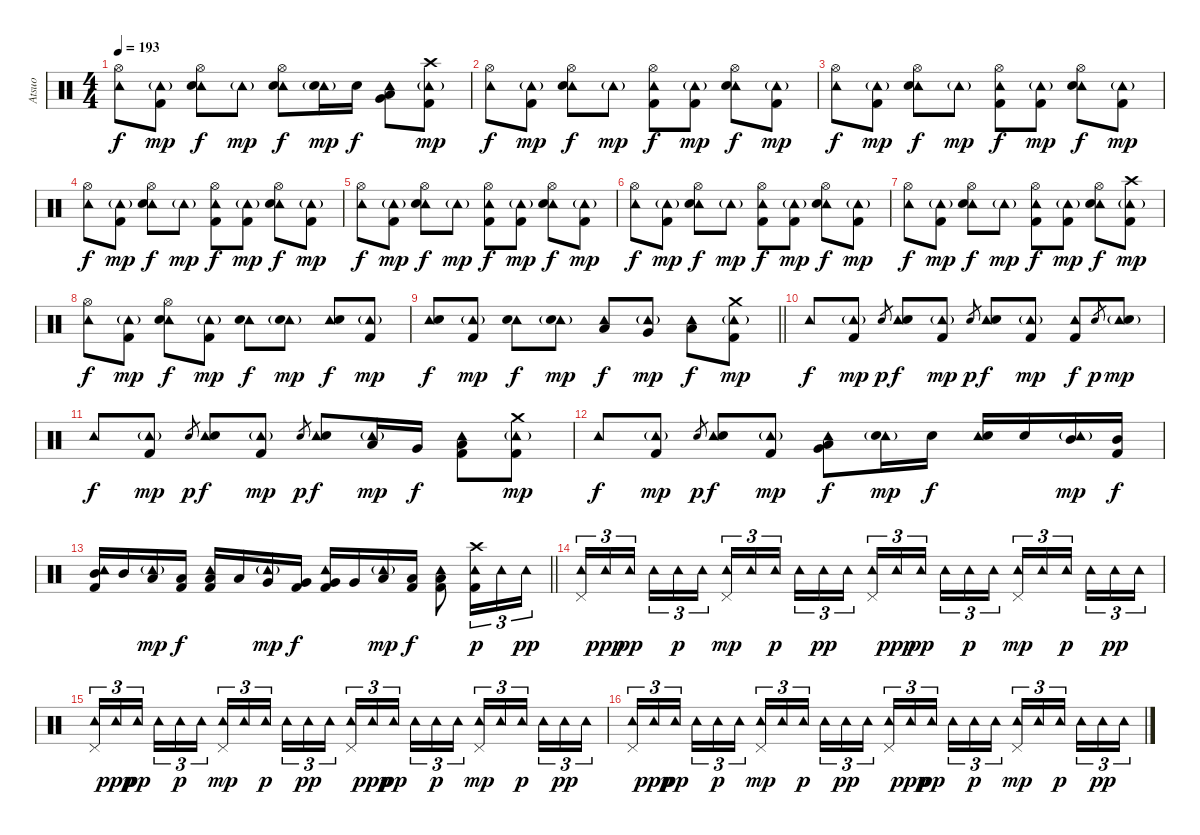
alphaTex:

\track ("Atsuo" "Atsuo") {instrument percussion}
\staff {score}
\articulation defaults
\ts (4 4)
\tempo 193
\clef neutral
\ks c
("Hi-Hat (open)" "Tambourine (hit)").8{dy f} ("Tambourine (hit)"{g} "Kick (hit) 2").8{dy mp} ("Hi-Hat (open)" "Tambourine (hit)" "Electric Snare (hit)").8{dy f} "Tambourine (hit)"{g}.8{dy mp} ("Hi-Hat (open)" "Tambourine (hit)" "Electric Snare (hit)").8{dy f} ("Tambourine (hit)"{g} "Electric Snare (hit)").16{dy mp} "Electric Snare (hit)".16{dy f} ("Tambourine (hit)" "Very Low Tom (hit)" "Low Floor Tom (hit)").8 ("Tambourine (hit)"{g} "Crash high (hit)" "Kick (hit) 2").8{dy mp} |
("Hi-Hat (open)" "Tambourine (hit)").8{dy f} ("Tambourine (hit)"{g} "Kick (hit) 2").8{dy mp} ("Hi-Hat (open)" "Tambourine (hit)" "Electric Snare (hit)").8{dy f} "Tambourine (hit)"{g}.8{dy mp} ("Hi-Hat (open)" "Tambourine (hit)" "Kick (hit) 2").8{dy f} ("Tambourine (hit)"{g} "Kick (hit) 2").8{dy mp} ("Hi-Hat (open)" "Tambourine (hit)" "Electric Snare (hit)").8{dy f} ("Tambourine (hit)"{g} "Kick (hit) 2").8{dy mp} |
("Hi-Hat (open)" "Tambourine (hit)").8{dy f} ("Tambourine (hit)"{g} "Kick (hit) 2").8{dy mp} ("Hi-Hat (open)" "Tambourine (hit)" "Electric Snare (hit)").8{dy f} "Tambourine (hit)"{g}.8{dy mp} ("Hi-Hat (open)" "Tambourine (hit)" "Kick (hit) 2").8{dy f} ("Tambourine (hit)"{g} "Kick (hit) 2").8{dy mp} ("Hi-Hat (open)" "Tambourine (hit)" "Electric Snare (hit)").8{dy f} ("Tambourine (hit)"{g} "Kick (hit) 2").8{dy mp} |
("Hi-Hat (open)" "Tambourine (hit)").8{dy f} ("Tambourine (hit)"{g} "Kick (hit) 2").8{dy mp} ("Hi-Hat (open)" "Tambourine (hit)" "Electric Snare (hit)").8{dy f} "Tambourine (hit)"{g}.8{dy mp} ("Hi-Hat (open)" "Tambourine (hit)" "Kick (hit) 2").8{dy f} ("Tambourine (hit)"{g} "Kick (hit) 2").8{dy mp} ("Hi-Hat (open)" "Tambourine (hit)" "Electric Snare (hit)").8{dy f} ("Tambourine (hit)"{g} "Kick (hit) 2").8{dy mp} |
("Hi-Hat (open)" "Tambourine (hit)").8{dy f} ("Tambourine (hit)"{g} "Kick (hit) 2").8{dy mp} ("Hi-Hat (open)" "Tambourine (hit)" "Electric Snare (hit)").8{dy f} "Tambourine (hit)"{g}.8{dy mp} ("Hi-Hat (open)" "Tambourine (hit)" "Kick (hit) 2").8{dy f} ("Tambourine (hit)"{g} "Kick (hit) 2").8{dy mp} ("Hi-Hat (open)" "Tambourine (hit)" "Electric Snare (hit)").8{dy f} ("Tambourine (hit)"{g} "Kick (hit) 2").8{dy mp} |
("Hi-Hat (open)" "Tambourine (hit)").8{dy f} ("Tambourine (hit)"{g} "Kick (hit) 2").8{dy mp} ("Hi-Hat (open)" "Tambourine (hit)" "Electric Snare (hit)").8{dy f} "Tambourine (hit)"{g}.8{dy mp} ("Hi-Hat (open)" "Tambourine (hit)" "Kick (hit) 2").8{dy f} ("Tambourine (hit)"{g} "Kick (hit) 2").8{dy mp} ("Hi-Hat (open)" "Tambourine (hit)" "Electric Snare (hit)").8{dy f} ("Tambourine (hit)"{g} "Kick (hit) 2").8{dy mp} |
("Hi-Hat (open)" "Tambourine (hit)").8{dy f} ("Tambourine (hit)"{g} "Kick (hit) 2").8{dy mp} ("Hi-Hat (open)" "Tambourine (hit)" "Electric Snare (hit)").8{dy f} "Tambourine (hit)"{g}.8{dy mp} ("Hi-Hat (open)" "Tambourine (hit)" "Kick (hit) 2").8{dy f} ("Tambourine (hit)"{g} "Kick (hit) 2").8{dy mp} ("Hi-Hat (open)" "Tambourine (hit)" "Electric Snare (hit)").8{dy f} ("Tambourine (hit)"{g} "Crash high (hit)" "Kick (hit) 2").8{dy mp} |
("Hi-Hat (open)" "Tambourine (hit)").8{dy f} ("Tambourine (hit)"{g} "Kick (hit) 2").8{dy mp} ("Hi-Hat (open)" "Tambourine (hit)" "Electric Snare (hit)").8{dy f} ("Tambourine (hit)"{g} "Kick (hit) 2").8{dy mp} ("Tambourine (hit)" "Electric Snare (hit)").8{dy f} ("Tambourine (hit)"{g} "Electric Snare (hit)").8{dy mp} ("Tambourine (hit)" "Electric Snare (hit)").8{dy f} ("Tambourine (hit)"{g} "Kick (hit) 2").8{dy mp} |
\barLineRight lightlight
("Tambourine (hit)" "Electric Snare (hit)").8{dy f} ("Tambourine (hit)"{g} "Kick (hit) 2").8{dy mp} ("Tambourine (hit)" "Electric Snare (hit)").8{dy f} ("Tambourine (hit)"{g} "Electric Snare (hit)").8{dy mp} ("Tambourine (hit)" "Low Tom (hit)").8{dy f} ("Tambourine (hit)"{g} "Very Low Tom (hit)").8{dy mp} ("Tambourine (hit)" "Low Floor Tom (hit)").8{dy f} ("Tambourine (hit)"{g} "Crash medium (hit)" "Kick (hit) 2").8{dy mp} |
"Tambourine (hit)".8{dy f} ("Tambourine (hit)"{g} "Kick (hit) 2").8{dy mp} "Electric Snare (hit)".8{gr dy p} ("Tambourine (hit)" "Electric Snare (hit)").8{dy f} ("Tambourine (hit)"{g} "Kick (hit) 2").8{dy mp} "Electric Snare (hit)".8{gr dy p} ("Tambourine (hit)" "Electric Snare (hit)").8{dy f} ("Tambourine (hit)"{g} "Kick (hit) 2").8{dy mp} ("Tambourine (hit)" "Kick (hit) 2").8{dy f} "Electric Snare (hit)".8{gr dy p} ("Tambourine (hit)"{g} "Electric Snare (hit)").8{dy mp} |
"Tambourine (hit)".8{dy f} ("Tambourine (hit)"{g} "Kick (hit) 2").8{dy mp} "Electric Snare (hit)".8{gr dy p} ("Tambourine (hit)" "Electric Snare (hit)").8{dy f} ("Tambourine (hit)"{g} "Kick (hit) 2").8{dy mp} "Electric Snare (hit)".8{gr dy p} ("Tambourine (hit)" "Electric Snare (hit)").8{dy f} ("Tambourine (hit)"{g} "Low Tom (hit)").16{dy mp} "Very Low Tom (hit)".16{dy f} ("Tambourine (hit)" "Low Floor Tom (hit)" "Kick (hit) 2").8 ("Tambourine (hit)"{g} "Crash medium (hit)" "Kick (hit) 2").8{dy mp} |
"Tambourine (hit)".8{dy f} ("Tambourine (hit)"{g} "Kick (hit) 2").8{dy mp} "Electric Snare (hit)".8{gr dy p} ("Tambourine (hit)" "Electric Snare (hit)").8{dy f} ("Tambourine (hit)"{g} "Kick (hit) 2").8{dy mp} ("Tambourine (hit)" "Very Low Tom (hit)" "Low Floor Tom (hit)").8{dy f} ("Tambourine (hit)"{g} "Electric Snare (hit)").16{dy mp} "Electric Snare (hit)".16{dy f} ("Tambourine (hit)" "Electric Snare (hit)").16 "Electric Snare (hit)".16 ("Tambourine (hit)"{g} "Mid Tom (hit)").16{dy mp} ("Mid Tom (hit)" "Kick (hit) 2").16{dy f} |
\barLineRight lightlight
("Tambourine (hit)" "Mid Tom (hit)" "Kick (hit) 2").16 "Mid Tom (hit)".16 ("Tambourine (hit)"{g} "Low Tom (hit)").16{dy mp} ("Low Tom (hit)" "Kick (hit) 2").16{dy f} ("Tambourine (hit)" "Low Tom (hit)" "Kick (hit) 2").16 "Low Tom (hit)".16 ("Tambourine (hit)"{g} "Very Low Tom (hit)").16{dy mp} ("Very Low Tom (hit)" "Kick (hit) 2").16{dy f} ("Tambourine (hit)" "Very Low Tom (hit)" "Kick (hit) 2").16 "Very Low Tom (hit)".16 ("Tambourine (hit)"{g} "Low Floor Tom (hit)").16{dy mp} ("Low Floor Tom (hit)" "Kick (hit) 2").16{dy f} ("Tambourine (hit)" "Low Floor Tom (hit)" "Kick (hit) 2").8 ("Crash high (hit)" "Tambourine (hit)" "Kick (hit) 2").16{tu (3 2) dy p} "Tambourine (hit)".16{tu (3 2)} "Tambourine (hit)".16{tu (3 2) dy pp} |
\section ("" "")
("Pedal Hi-Hat (hit)" "Tambourine (hit)").16{tu (3 2)} "Tambourine (hit)".16{tu (3 2) dy ppp} "Tambourine (hit)".16{tu (3 2) dy pp beam splitsecondary} "Tambourine (hit)".16{tu (3 2)} "Tambourine (hit)".16{tu (3 2) dy p} "Tambourine (hit)".16{tu (3 2)} ("Pedal Hi-Hat (hit)" "Tambourine (hit)").16{tu (3 2) dy mp} "Tambourine (hit)".16{tu (3 2)} "Tambourine (hit)".16{tu (3 2) dy p beam splitsecondary} "Tambourine (hit)".16{tu (3 2)} "Tambourine (hit)".16{tu (3 2) dy pp} "Tambourine (hit)".16{tu (3 2)} ("Pedal Hi-Hat (hit)" "Tambourine (hit)").16{tu (3 2)} "Tambourine (hit)".16{tu (3 2) dy ppp} "Tambourine (hit)".16{tu (3 2) dy pp beam splitsecondary} "Tambourine (hit)".16{tu (3 2)} "Tambourine (hit)".16{tu (3 2) dy p} "Tambourine (hit)".16{tu (3 2)} ("Pedal Hi-Hat (hit)" "Tambourine (hit)").16{tu (3 2) dy mp} "Tambourine (hit)".16{tu (3 2)} "Tambourine (hit)".16{tu (3 2) dy p beam splitsecondary} "Tambourine (hit)".16{tu (3 2)} "Tambourine (hit)".16{tu (3 2) dy pp} "Tambourine (hit)".16{tu (3 2)} |
("Pedal Hi-Hat (hit)" "Tambourine (hit)").16{tu (3 2)} "Tambourine (hit)".16{tu (3 2) dy ppp} "Tambourine (hit)".16{tu (3 2) dy pp beam splitsecondary} "Tambourine (hit)".16{tu (3 2)} "Tambourine (hit)".16{tu (3 2) dy p} "Tambourine (hit)".16{tu (3 2)} ("Pedal Hi-Hat (hit)" "Tambourine (hit)").16{tu (3 2) dy mp} "Tambourine (hit)".16{tu (3 2)} "Tambourine (hit)".16{tu (3 2) dy p beam splitsecondary} "Tambourine (hit)".16{tu (3 2)} "Tambourine (hit)".16{tu (3 2) dy pp} "Tambourine (hit)".16{tu (3 2)} ("Pedal Hi-Hat (hit)" "Tambourine (hit)").16{tu (3 2)} "Tambourine (hit)".16{tu (3 2) dy ppp} "Tambourine (hit)".16{tu (3 2) dy pp beam splitsecondary} "Tambourine (hit)".16{tu (3 2)} "Tambourine (hit)".16{tu (3 2) dy p} "Tambourine (hit)".16{tu (3 2)} ("Pedal Hi-Hat (hit)" "Tambourine (hit)").16{tu (3 2) dy mp} "Tambourine (hit)".16{tu (3 2)} "Tambourine (hit)".16{tu (3 2) dy p beam splitsecondary} "Tambourine (hit)".16{tu (3 2)} "Tambourine (hit)".16{tu (3 2) dy pp} "Tambourine (hit)".16{tu (3 2)} |
("Pedal Hi-Hat (hit)" "Tambourine (hit)").16{tu (3 2)} "Tambourine (hit)".16{tu (3 2) dy ppp} "Tambourine (hit)".16{tu (3 2) dy pp beam splitsecondary} "Tambourine (hit)".16{tu (3 2)} "Tambourine (hit)".16{tu (3 2) dy p} "Tambourine (hit)".16{tu (3 2)} ("Pedal Hi-Hat (hit)" "Tambourine (hit)").16{tu (3 2) dy mp} "Tambourine (hit)".16{tu (3 2)} "Tambourine (hit)".16{tu (3 2) dy p beam splitsecondary} "Tambourine (hit)".16{tu (3 2)} "Tambourine (hit)".16{tu (3 2) dy pp} "Tambourine (hit)".16{tu (3 2)} ("Pedal Hi-Hat (hit)" "Tambourine (hit)").16{tu (3 2)} "Tambourine (hit)".16{tu (3 2) dy ppp} "Tambourine (hit)".16{tu (3 2) dy pp beam splitsecondary} "Tambourine (hit)".16{tu (3 2)} "Tambourine (hit)".16{tu (3 2) dy p} "Tambourine (hit)".16{tu (3 2)} ("Pedal Hi-Hat (hit)" "Tambourine (hit)").16{tu (3 2) dy mp} "Tambourine (hit)".16{tu (3 2)} "Tambourine (hit)".16{tu (3 2) dy p beam splitsecondary} "Tambourine (hit)".16{tu (3 2)} "Tambourine (hit)".16{tu (3 2) dy pp} "Tambourine (hit)".16{tu (3 2)}
